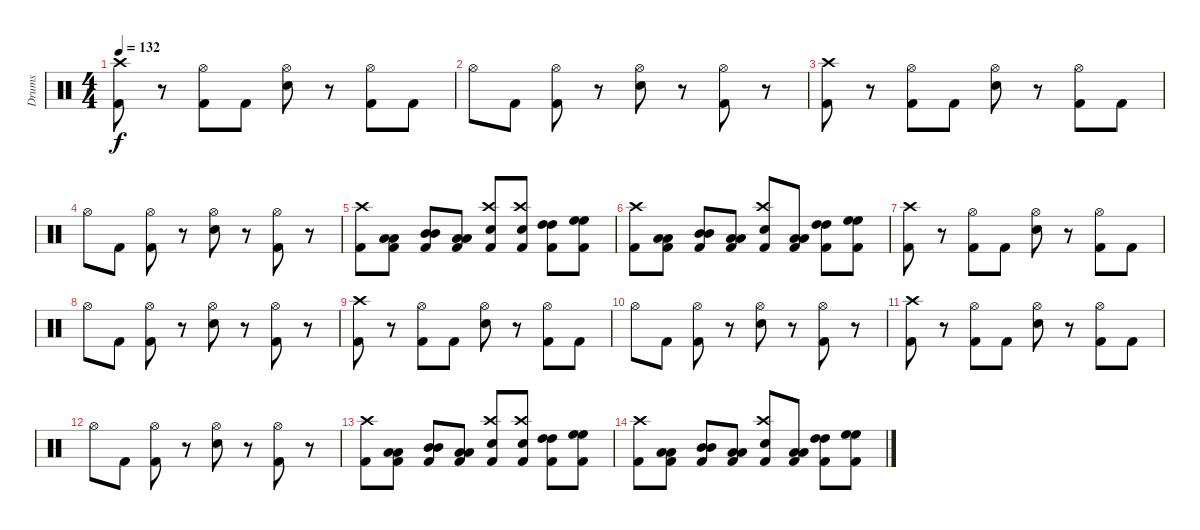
\track ("Drums" "Drums") {instrument percussion}
\staff {score}
\articulation defaults
\ts (4 4)
\tempo 132
\clef neutral
\ks c
("Kick (hit) 2" "Crash high (hit)").8{dy f volume 8} r.8 ("Kick (hit) 2" "Hi-Hat (open)").8 "Kick (hit) 2".8 ("Snare (hit) 2" "Hi-Hat (open)").8 r.8 ("Kick (hit) 2" "Hi-Hat (open)").8 "Kick (hit) 2".8 |
"Hi-Hat (open)".8 "Kick (hit) 2".8 ("Kick (hit) 2" "Hi-Hat (open)").8 r.8 ("Snare (hit) 2" "Hi-Hat (open)").8 r.8 ("Kick (hit) 2" "Hi-Hat (open)").8 r.8 |
("Kick (hit) 2" "Crash high (hit)").8 r.8{volume 6} ("Kick (hit) 2" "Hi-Hat (open)").8 "Kick (hit) 2".8 ("Snare (hit) 2" "Hi-Hat (open)").8 r.8 ("Kick (hit) 2" "Hi-Hat (open)").8 "Kick (hit) 2".8 |
"Hi-Hat (open)".8 "Kick (hit) 2".8 ("Kick (hit) 2" "Hi-Hat (open)").8 r.8 ("Snare (hit) 2" "Hi-Hat (open)").8 r.8 ("Kick (hit) 2" "Hi-Hat (open)").8 r.8 |
("Kick (hit) 2" "Crash high (hit)").8 ("Kick (hit) 2" "Low Tom (hit)" "Low Tom (hit)").8 ("Kick (hit) 2" "Mid Tom (hit)" "Mid Tom (hit)").8 ("Kick (hit) 2" "Low Tom (hit)" "Low Tom (hit)").8 ("Kick (hit) 2" "Snare (hit) 2" "Crash high (hit)").8 ("Kick (hit) 2" "Snare (hit) 2" "Crash high (hit)").8 ("Kick (hit) 2" "High Tom (hit)" "High Tom (hit)").8 ("Kick (hit) 2" "High Floor Tom (hit)" "High Floor Tom (hit)").8 |
("Kick (hit) 2" "Crash high (hit)").8 ("Kick (hit) 2" "Low Tom (hit)" "Low Tom (hit)").8 ("Kick (hit) 2" "Mid Tom (hit)" "Mid Tom (hit)").8 ("Kick (hit) 2" "Low Tom (hit)" "Low Tom (hit)").8 ("Kick (hit) 2" "Snare (hit) 2" "Crash high (hit)").8 ("Kick (hit) 2" "Low Tom (hit)" "Low Tom (hit)").8 ("Kick (hit) 2" "High Tom (hit)" "High Tom (hit)").8 ("Kick (hit) 2" "High Floor Tom (hit)" "High Floor Tom (hit)").8 |
("Kick (hit) 2" "Crash high (hit)").8{volume 4} r.8 ("Kick (hit) 2" "Hi-Hat (open)").8 "Kick (hit) 2".8 ("Snare (hit) 2" "Hi-Hat (open)").8 r.8 ("Kick (hit) 2" "Hi-Hat (open)").8 "Kick (hit) 2".8 |
"Hi-Hat (open)".8 "Kick (hit) 2".8 ("Kick (hit) 2" "Hi-Hat (open)").8 r.8 ("Snare (hit) 2" "Hi-Hat (open)").8 r.8 ("Kick (hit) 2" "Hi-Hat (open)").8 r.8 |
("Kick (hit) 2" "Crash high (hit)").8 r.8 ("Kick (hit) 2" "Hi-Hat (open)").8 "Kick (hit) 2".8 ("Snare (hit) 2" "Hi-Hat (open)").8 r.8 ("Kick (hit) 2" "Hi-Hat (open)").8 "Kick (hit) 2".8 |
"Hi-Hat (open)".8 "Kick (hit) 2".8 ("Kick (hit) 2" "Hi-Hat (open)").8 r.8 ("Snare (hit) 2" "Hi-Hat (open)").8 r.8 ("Kick (hit) 2" "Hi-Hat (open)").8 r.8 |
("Kick (hit) 2" "Crash high (hit)").8{volume 2} r.8 ("Kick (hit) 2" "Hi-Hat (open)").8 "Kick (hit) 2".8 ("Snare (hit) 2" "Hi-Hat (open)").8 r.8 ("Kick (hit) 2" "Hi-Hat (open)").8 "Kick (hit) 2".8 |
"Hi-Hat (open)".8 "Kick (hit) 2".8 ("Kick (hit) 2" "Hi-Hat (open)").8 r.8 ("Snare (hit) 2" "Hi-Hat (open)").8 r.8 ("Kick (hit) 2" "Hi-Hat (open)").8 r.8 |
("Kick (hit) 2" "Crash high (hit)").8 ("Kick (hit) 2" "Low Tom (hit)" "Low Tom (hit)").8 ("Kick (hit) 2" "Mid Tom (hit)" "Mid Tom (hit)").8 ("Kick (hit) 2" "Low Tom (hit)" "Low Tom (hit)").8 ("Kick (hit) 2" "Snare (hit) 2" "Crash high (hit)").8 ("Kick (hit) 2" "Snare (hit) 2" "Crash high (hit)").8 ("Kick (hit) 2" "High Tom (hit)" "High Tom (hit)").8 ("Kick (hit) 2" "High Floor Tom (hit)" "High Floor Tom (hit)").8 |
("Kick (hit) 2" "Crash high (hit)").8 ("Kick (hit) 2" "Low Tom (hit)" "Low Tom (hit)").8 ("Kick (hit) 2" "Mid Tom (hit)" "Mid Tom (hit)").8 ("Kick (hit) 2" "Low Tom (hit)" "Low Tom (hit)").8 ("Kick (hit) 2" "Snare (hit) 2" "Crash high (hit)").8 ("Kick (hit) 2" "Low Tom (hit)" "Low Tom (hit)").8 ("Kick (hit) 2" "High Tom (hit)" "High Tom (hit)").8 ("Kick (hit) 2" "High Floor Tom (hit)" "High Floor Tom (hit)").8
